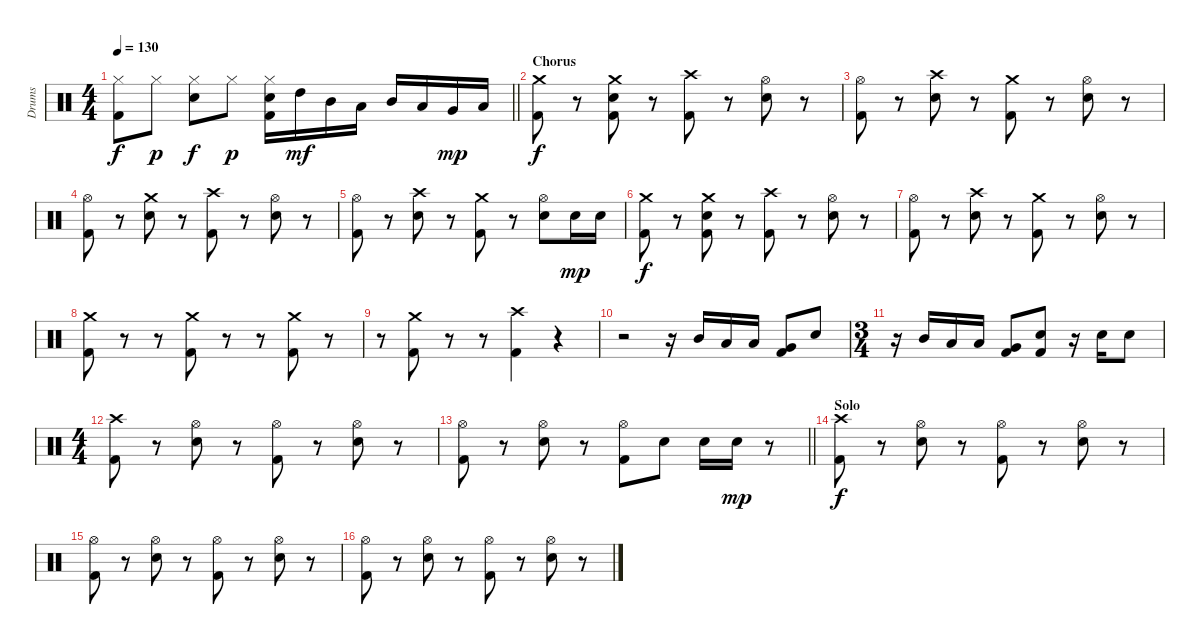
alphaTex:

\track ("Drums" "Drums") {instrument percussion}
\staff {score}
\articulation defaults
\ts (4 4)
\tempo 130
\clef neutral
\barLineRight lightlight
\ks c
("Hi-Hat (closed)" "Kick (hit) 2").8{dy f} "Hi-Hat (closed)".8{dy p} ("Hi-Hat (closed)" "Electric Snare (hit)").8{dy f} "Hi-Hat (closed)".8{dy p} ("Hi-Hat (closed)" "Electric Snare (hit)" "Kick (hit) 2").16 "High Tom (hit)".16{dy mf} "Mid Tom (hit)".16 "Low Tom (hit)".16 "Mid Tom (hit)".16 "Low Tom (hit)".16 "Very Low Tom (hit)".16{dy mp} "Low Floor Tom (hit)".16 |
\section ("" "Chorus")
("Crash medium (hit)" "Kick (hit) 2").8{dy f} r.8 ("Crash medium (hit)" "Electric Snare (hit)" "Kick (hit) 2").8 r.8 ("Crash high (hit)" "Kick (hit) 2").8 r.8 ("Hi-Hat (open)" "Electric Snare (hit)").8 r.8 |
("Hi-Hat (open)" "Kick (hit) 2").8 r.8 ("Crash high (hit)" "Electric Snare (hit)").8 r.8 ("Crash medium (hit)" "Kick (hit) 2").8 r.8 ("Hi-Hat (open)" "Electric Snare (hit)").8 r.8 |
("Hi-Hat (open)" "Kick (hit) 2").8 r.8 ("Crash medium (hit)" "Electric Snare (hit)").8 r.8 ("Crash high (hit)" "Kick (hit) 2").8 r.8 ("Hi-Hat (open)" "Electric Snare (hit)").8 r.8 |
("Hi-Hat (open)" "Kick (hit) 2").8 r.8 ("Crash high (hit)" "Electric Snare (hit)").8 r.8 ("Crash medium (hit)" "Kick (hit) 2").8 r.8 ("Hi-Hat (open)" "Electric Snare (hit)").8 "Electric Snare (hit)".16{dy mp} "Electric Snare (hit)".16 |
("Crash medium (hit)" "Kick (hit) 2").8{dy f} r.8 ("Crash medium (hit)" "Electric Snare (hit)" "Kick (hit) 2").8 r.8 ("Crash high (hit)" "Kick (hit) 2").8 r.8 ("Hi-Hat (open)" "Electric Snare (hit)").8 r.8 |
("Hi-Hat (open)" "Kick (hit) 2").8 r.8 ("Crash high (hit)" "Electric Snare (hit)").8 r.8 ("Crash medium (hit)" "Kick (hit) 2").8 r.8 ("Hi-Hat (open)" "Electric Snare (hit)").8 r.8 |
("Crash medium (hit)" "Kick (hit) 2").8 r.8 r.8 ("Crash medium (hit)" "Kick (hit) 2").8 r.8 r.8 ("Crash medium (hit)" "Kick (hit) 2").8 r.8 |
r.8 ("Crash medium (hit)" "Kick (hit) 2").8 r.8 r.8 ("Crash high (hit)" "Kick (hit) 2").4 r.4 |
r.2 r.16 "Mid Tom (hit)".16 "Low Tom (hit)".16 "Low Tom (hit)".16 ("Very Low Tom (hit)" "Kick (hit) 2").8 "Electric Snare (hit)".8 |
\ts (3 4)
r.16 "Mid Tom (hit)".16 "Low Tom (hit)".16 "Low Tom (hit)".16 ("Very Low Tom (hit)" "Kick (hit) 2").8 ("Electric Snare (hit)" "Kick (hit) 2").8 r.16 "Electric Snare (hit)".16 "Electric Snare (hit)".8 |
\ts (4 4)
("Crash high (hit)" "Kick (hit) 2").8 r.8 ("Hi-Hat (open)" "Electric Snare (hit)").8 r.8 ("Hi-Hat (open)" "Kick (hit) 2").8 r.8 ("Hi-Hat (open)" "Electric Snare (hit)").8 r.8 |
\barLineRight lightlight
("Hi-Hat (open)" "Kick (hit) 2").8 r.8 ("Hi-Hat (open)" "Electric Snare (hit)").8 r.8 ("Hi-Hat (open)" "Kick (hit) 2").8 "Electric Snare (hit)".8 "Electric Snare (hit)".16 "Electric Snare (hit)".16{dy mp} r.8 |
\section ("" "Solo")
("Crash high (hit)" "Kick (hit) 2").8{dy f} r.8 ("Hi-Hat (open)" "Electric Snare (hit)").8 r.8 ("Hi-Hat (open)" "Kick (hit) 2").8 r.8 ("Hi-Hat (open)" "Electric Snare (hit)").8 r.8 |
("Hi-Hat (open)" "Kick (hit) 2").8 r.8 ("Hi-Hat (open)" "Electric Snare (hit)").8 r.8 ("Hi-Hat (open)" "Kick (hit) 2").8 r.8 ("Hi-Hat (open)" "Electric Snare (hit)").8 r.8 |
("Hi-Hat (open)" "Kick (hit) 2").8 r.8 ("Hi-Hat (open)" "Electric Snare (hit)").8 r.8 ("Hi-Hat (open)" "Kick (hit) 2").8 r.8 ("Hi-Hat (open)" "Electric Snare (hit)").8 r.8
